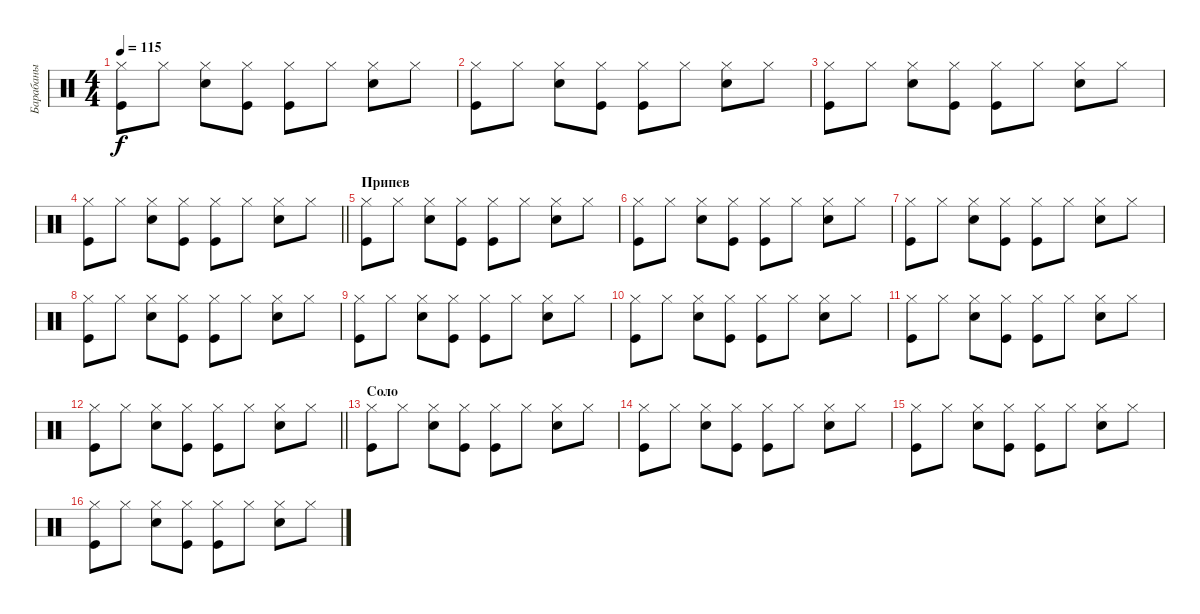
\track ("Барабаны" "Барабаны") {instrument percussion}
\staff {score}
\articulation defaults
\ts (4 4)
\tempo 115
\clef neutral
\ks c
("Kick (hit)" "Hi-Hat (closed)").8{dy f} "Hi-Hat (closed)".8 ("Snare (hit) 2" "Hi-Hat (closed)").8 ("Kick (hit)" "Hi-Hat (closed)").8 ("Kick (hit)" "Hi-Hat (closed)").8 "Hi-Hat (closed)".8 ("Snare (hit) 2" "Hi-Hat (closed)").8 "Hi-Hat (closed)".8 |
("Kick (hit)" "Hi-Hat (closed)").8 "Hi-Hat (closed)".8 ("Snare (hit) 2" "Hi-Hat (closed)").8 ("Kick (hit)" "Hi-Hat (closed)").8 ("Kick (hit)" "Hi-Hat (closed)").8 "Hi-Hat (closed)".8 ("Snare (hit) 2" "Hi-Hat (closed)").8 "Hi-Hat (closed)".8 |
("Kick (hit)" "Hi-Hat (closed)").8 "Hi-Hat (closed)".8 ("Snare (hit) 2" "Hi-Hat (closed)").8 ("Kick (hit)" "Hi-Hat (closed)").8 ("Kick (hit)" "Hi-Hat (closed)").8 "Hi-Hat (closed)".8 ("Snare (hit) 2" "Hi-Hat (closed)").8 "Hi-Hat (closed)".8 |
\barLineRight lightlight
("Kick (hit)" "Hi-Hat (closed)").8 "Hi-Hat (closed)".8 ("Snare (hit) 2" "Hi-Hat (closed)").8 ("Kick (hit)" "Hi-Hat (closed)").8 ("Kick (hit)" "Hi-Hat (closed)").8 "Hi-Hat (closed)".8 ("Snare (hit) 2" "Hi-Hat (closed)").8 "Hi-Hat (closed)".8 |
\section ("" "Припев")
("Kick (hit)" "Hi-Hat (closed)").8 "Hi-Hat (closed)".8 ("Snare (hit) 2" "Hi-Hat (closed)").8 ("Kick (hit)" "Hi-Hat (closed)").8 ("Kick (hit)" "Hi-Hat (closed)").8 "Hi-Hat (closed)".8 ("Snare (hit) 2" "Hi-Hat (closed)").8 "Hi-Hat (closed)".8 |
("Kick (hit)" "Hi-Hat (closed)").8 "Hi-Hat (closed)".8 ("Snare (hit) 2" "Hi-Hat (closed)").8 ("Kick (hit)" "Hi-Hat (closed)").8 ("Kick (hit)" "Hi-Hat (closed)").8 "Hi-Hat (closed)".8 ("Snare (hit) 2" "Hi-Hat (closed)").8 "Hi-Hat (closed)".8 |
("Kick (hit)" "Hi-Hat (closed)").8 "Hi-Hat (closed)".8 ("Snare (hit) 2" "Hi-Hat (closed)").8 ("Kick (hit)" "Hi-Hat (closed)").8 ("Kick (hit)" "Hi-Hat (closed)").8 "Hi-Hat (closed)".8 ("Snare (hit) 2" "Hi-Hat (closed)").8 "Hi-Hat (closed)".8 |
("Kick (hit)" "Hi-Hat (closed)").8 "Hi-Hat (closed)".8 ("Snare (hit) 2" "Hi-Hat (closed)").8 ("Kick (hit)" "Hi-Hat (closed)").8 ("Kick (hit)" "Hi-Hat (closed)").8 "Hi-Hat (closed)".8 ("Snare (hit) 2" "Hi-Hat (closed)").8 "Hi-Hat (closed)".8 |
("Kick (hit)" "Hi-Hat (closed)").8 "Hi-Hat (closed)".8 ("Snare (hit) 2" "Hi-Hat (closed)").8 ("Kick (hit)" "Hi-Hat (closed)").8 ("Kick (hit)" "Hi-Hat (closed)").8 "Hi-Hat (closed)".8 ("Snare (hit) 2" "Hi-Hat (closed)").8 "Hi-Hat (closed)".8 |
("Kick (hit)" "Hi-Hat (closed)").8 "Hi-Hat (closed)".8 ("Snare (hit) 2" "Hi-Hat (closed)").8 ("Kick (hit)" "Hi-Hat (closed)").8 ("Kick (hit)" "Hi-Hat (closed)").8 "Hi-Hat (closed)".8 ("Snare (hit) 2" "Hi-Hat (closed)").8 "Hi-Hat (closed)".8 |
("Kick (hit)" "Hi-Hat (closed)").8 "Hi-Hat (closed)".8 ("Snare (hit) 2" "Hi-Hat (closed)").8 ("Kick (hit)" "Hi-Hat (closed)").8 ("Kick (hit)" "Hi-Hat (closed)").8 "Hi-Hat (closed)".8 ("Snare (hit) 2" "Hi-Hat (closed)").8 "Hi-Hat (closed)".8 |
\barLineRight lightlight
("Kick (hit)" "Hi-Hat (closed)").8 "Hi-Hat (closed)".8 ("Snare (hit) 2" "Hi-Hat (closed)").8 ("Kick (hit)" "Hi-Hat (closed)").8 ("Kick (hit)" "Hi-Hat (closed)").8 "Hi-Hat (closed)".8 ("Snare (hit) 2" "Hi-Hat (closed)").8 "Hi-Hat (closed)".8 |
\section ("" "Соло")
("Kick (hit)" "Hi-Hat (closed)").8 "Hi-Hat (closed)".8 ("Snare (hit) 2" "Hi-Hat (closed)").8 ("Kick (hit)" "Hi-Hat (closed)").8 ("Kick (hit)" "Hi-Hat (closed)").8 "Hi-Hat (closed)".8 ("Snare (hit) 2" "Hi-Hat (closed)").8 "Hi-Hat (closed)".8 |
("Kick (hit)" "Hi-Hat (closed)").8 "Hi-Hat (closed)".8 ("Snare (hit) 2" "Hi-Hat (closed)").8 ("Kick (hit)" "Hi-Hat (closed)").8 ("Kick (hit)" "Hi-Hat (closed)").8 "Hi-Hat (closed)".8 ("Snare (hit) 2" "Hi-Hat (closed)").8 "Hi-Hat (closed)".8 |
("Kick (hit)" "Hi-Hat (closed)").8 "Hi-Hat (closed)".8 ("Snare (hit) 2" "Hi-Hat (closed)").8 ("Kick (hit)" "Hi-Hat (closed)").8 ("Kick (hit)" "Hi-Hat (closed)").8 "Hi-Hat (closed)".8 ("Snare (hit) 2" "Hi-Hat (closed)").8 "Hi-Hat (closed)".8 |
("Kick (hit)" "Hi-Hat (closed)").8 "Hi-Hat (closed)".8 ("Snare (hit) 2" "Hi-Hat (closed)").8 ("Kick (hit)" "Hi-Hat (closed)").8 ("Kick (hit)" "Hi-Hat (closed)").8 "Hi-Hat (closed)".8 ("Snare (hit) 2" "Hi-Hat (closed)").8 "Hi-Hat (closed)".8
